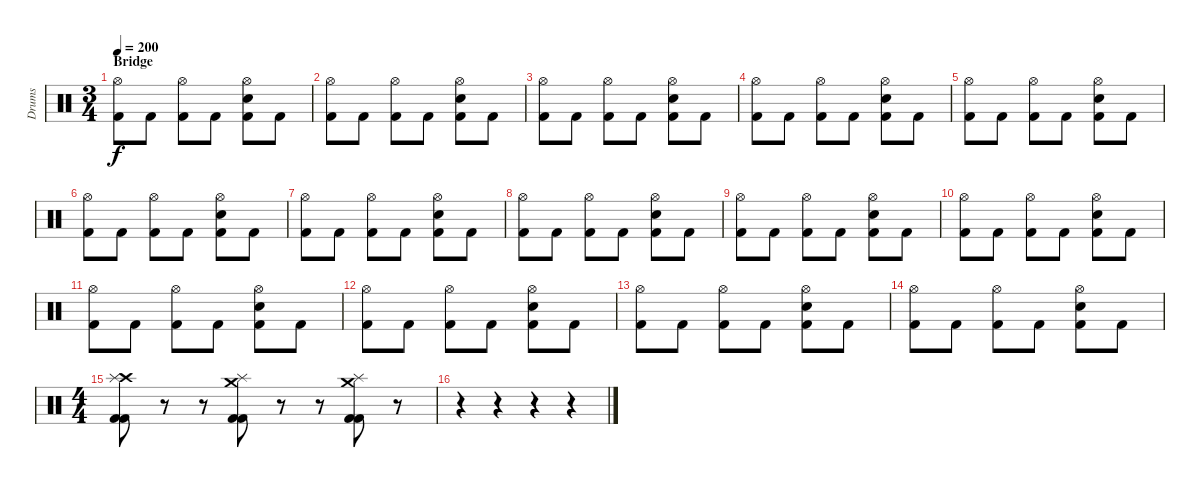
\track ("Drums" "Drums") {instrument percussion}
\staff {score}
\articulation defaults
\ts (3 4)
\section ("" "Bridge")
\tempo 200
\clef neutral
\ks c
("Hi-Hat (open)" "Kick (hit) 2").8{dy f} "Kick (hit) 2".8 ("Hi-Hat (open)" "Kick (hit) 2").8 "Kick (hit) 2".8 ("Hi-Hat (open)" "Snare (hit) 2" "Kick (hit) 2").8 "Kick (hit) 2".8 |
("Hi-Hat (open)" "Kick (hit) 2").8 "Kick (hit) 2".8 ("Hi-Hat (open)" "Kick (hit) 2").8 "Kick (hit) 2".8 ("Hi-Hat (open)" "Snare (hit) 2" "Kick (hit) 2").8 "Kick (hit) 2".8 |
("Hi-Hat (open)" "Kick (hit) 2").8 "Kick (hit) 2".8 ("Hi-Hat (open)" "Kick (hit) 2").8 "Kick (hit) 2".8 ("Hi-Hat (open)" "Snare (hit) 2" "Kick (hit) 2").8 "Kick (hit) 2".8 |
("Hi-Hat (open)" "Kick (hit) 2").8 "Kick (hit) 2".8 ("Hi-Hat (open)" "Kick (hit) 2").8 "Kick (hit) 2".8 ("Hi-Hat (open)" "Snare (hit) 2" "Kick (hit) 2").8 "Kick (hit) 2".8 |
("Hi-Hat (open)" "Kick (hit) 2").8 "Kick (hit) 2".8 ("Hi-Hat (open)" "Kick (hit) 2").8 "Kick (hit) 2".8 ("Hi-Hat (open)" "Snare (hit) 2" "Kick (hit) 2").8 "Kick (hit) 2".8 |
("Hi-Hat (open)" "Kick (hit) 2").8 "Kick (hit) 2".8 ("Hi-Hat (open)" "Kick (hit) 2").8 "Kick (hit) 2".8 ("Hi-Hat (open)" "Snare (hit) 2" "Kick (hit) 2").8 "Kick (hit) 2".8 |
("Hi-Hat (open)" "Kick (hit) 2").8 "Kick (hit) 2".8 ("Hi-Hat (open)" "Kick (hit) 2").8 "Kick (hit) 2".8 ("Hi-Hat (open)" "Snare (hit) 2" "Kick (hit) 2").8 "Kick (hit) 2".8 |
("Hi-Hat (open)" "Kick (hit) 2").8 "Kick (hit) 2".8 ("Hi-Hat (open)" "Kick (hit) 2").8 "Kick (hit) 2".8 ("Hi-Hat (open)" "Snare (hit) 2" "Kick (hit) 2").8 "Kick (hit) 2".8 |
("Hi-Hat (open)" "Kick (hit) 2").8 "Kick (hit) 2".8 ("Hi-Hat (open)" "Kick (hit) 2").8 "Kick (hit) 2".8 ("Hi-Hat (open)" "Snare (hit) 2" "Kick (hit) 2").8 "Kick (hit) 2".8 |
("Hi-Hat (open)" "Kick (hit) 2").8 "Kick (hit) 2".8 ("Hi-Hat (open)" "Kick (hit) 2").8 "Kick (hit) 2".8 ("Hi-Hat (open)" "Snare (hit) 2" "Kick (hit) 2").8 "Kick (hit) 2".8 |
("Hi-Hat (open)" "Kick (hit) 2").8 "Kick (hit) 2".8 ("Hi-Hat (open)" "Kick (hit) 2").8 "Kick (hit) 2".8 ("Hi-Hat (open)" "Snare (hit) 2" "Kick (hit) 2").8 "Kick (hit) 2".8 |
("Hi-Hat (open)" "Kick (hit) 2").8 "Kick (hit) 2".8 ("Hi-Hat (open)" "Kick (hit) 2").8 "Kick (hit) 2".8 ("Hi-Hat (open)" "Snare (hit) 2" "Kick (hit) 2").8 "Kick (hit) 2".8 |
("Hi-Hat (open)" "Kick (hit) 2").8 "Kick (hit) 2".8 ("Hi-Hat (open)" "Kick (hit) 2").8 "Kick (hit) 2".8 ("Hi-Hat (open)" "Snare (hit) 2" "Kick (hit) 2").8 "Kick (hit) 2".8 |
("Hi-Hat (open)" "Kick (hit) 2").8 "Kick (hit) 2".8 ("Hi-Hat (open)" "Kick (hit) 2").8 "Kick (hit) 2".8 ("Hi-Hat (open)" "Snare (hit) 2" "Kick (hit) 2").8 "Kick (hit) 2".8 |
\ts (4 4)
("Crash high (hit)" "Splash (hit)" "Kick (hit) 2" "Kick (hit) 2").8 r.8 r.8 ("Crash medium (hit)" "Splash (hit)" "Kick (hit) 2" "Kick (hit) 2").8 r.8 r.8 ("Crash medium (hit)" "Splash (hit)" "Kick (hit) 2" "Kick (hit) 2").8 r.8 |
r.4 r.4 r.4 r.4
